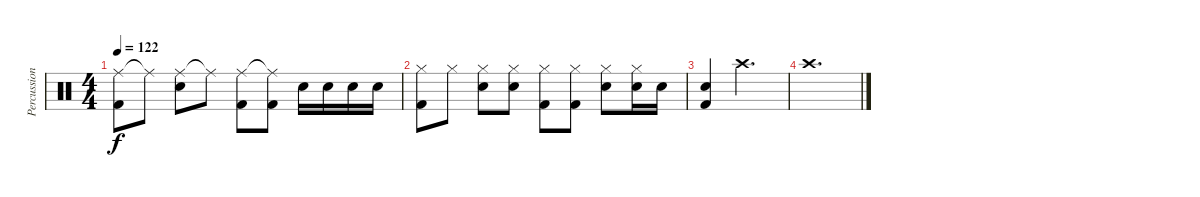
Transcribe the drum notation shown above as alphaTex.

\track ("Percussion" "Percussion") {instrument percussion}
\staff {score}
\articulation defaults
\ts (4 4)
\tempo 122
\clef neutral
\ks c
("Ride (middle)" "Kick (hit) 2").8{dy f} "Ride (middle)"{t}.8 ("Ride (middle)" "Snare (hit) 2").8 "Ride (middle)"{t}.8 ("Ride (middle)" "Kick (hit) 2").8 ("Ride (middle)"{t} "Kick (hit) 2").8 "Snare (hit) 2".16 "Snare (hit) 2".16 "Snare (hit) 2".16 "Snare (hit) 2".16 |
("Hi-Hat (closed)" "Kick (hit) 2").8 "Hi-Hat (closed)".8 ("Hi-Hat (closed)" "Snare (hit) 2").8 ("Hi-Hat (closed)" "Snare (hit) 2").8 ("Hi-Hat (closed)" "Kick (hit) 2").8 ("Hi-Hat (closed)" "Kick (hit) 2").8 ("Hi-Hat (closed)" "Snare (hit) 2").8 ("Hi-Hat (closed)" "Snare (hit) 2").16 "Snare (hit) 2".16 |
("Snare (hit) 2" "Kick (hit) 2").4 "Crash high (hit)".2{d} |
"Crash high (hit)".1{d}
